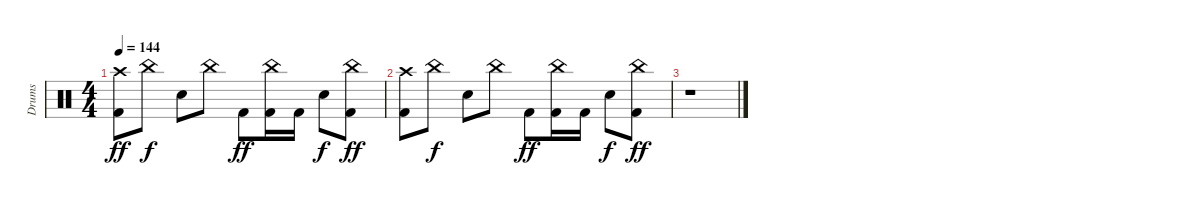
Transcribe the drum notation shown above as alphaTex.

\track ("Drums" "Drums") {instrument percussion}
\staff {score}
\articulation defaults
\ts (4 4)
\tempo 144
\clef neutral
\ks c
("Crash high (hit)" "Kick (hit) 2").8{dy ff volume 6} "China (hit)".8{dy f} "Snare (hit) 2".8 "China (hit)".8 "Kick (hit) 2".8{dy ff} ("China (hit)" "Kick (hit) 2").16 "Kick (hit) 2".16 "Snare (hit) 2".8{dy f} ("China (hit)" "Kick (hit) 2").8{dy ff} |
("Crash high (hit)" "Kick (hit) 2").8{volume 4} "China (hit)".8{dy f} "Snare (hit) 2".8 "China (hit)".8 "Kick (hit) 2".8{dy ff} ("China (hit)" "Kick (hit) 2").16 "Kick (hit) 2".16 "Snare (hit) 2".8{dy f} ("China (hit)" "Kick (hit) 2").8{dy ff} |
r.1
